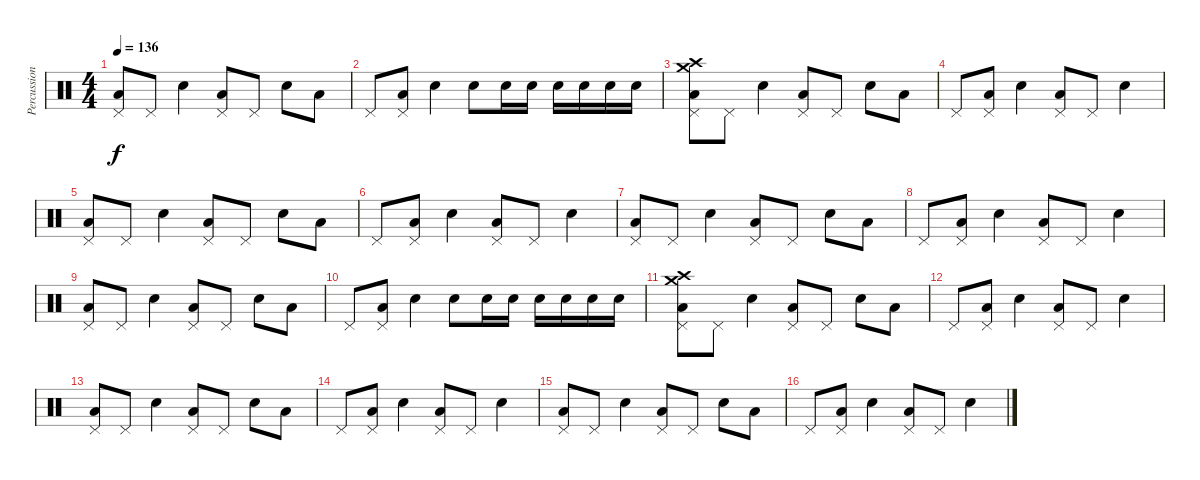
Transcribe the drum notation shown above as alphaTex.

\track ("Percussions" "Percussion") {instrument percussion}
\staff {score}
\articulation defaults
\ts (4 4)
\tempo 136
\clef neutral
\ks c
("Low Floor Tom (hit)" "Pedal Hi-Hat (hit)").8{dy f} "Pedal Hi-Hat (hit)".8 "Snare (hit) 2".4 ("Low Floor Tom (hit)" "Pedal Hi-Hat (hit)").8 "Pedal Hi-Hat (hit)".8 "Snare (hit) 2".8 "Low Floor Tom (hit)".8 |
"Pedal Hi-Hat (hit)".8 ("Low Floor Tom (hit)" "Pedal Hi-Hat (hit)").8 "Snare (hit) 2".4 "Snare (hit) 2".8 "Snare (hit) 2".16 "Snare (hit) 2".16 "Snare (hit) 2".16 "Snare (hit) 2".16 "Snare (hit) 2".16 "Snare (hit) 2".16 |
("Low Floor Tom (hit)" "Pedal Hi-Hat (hit)" "Crash high (hit)" "Crash medium (hit)").8 "Pedal Hi-Hat (hit)".8 "Snare (hit) 2".4 ("Low Floor Tom (hit)" "Pedal Hi-Hat (hit)").8 "Pedal Hi-Hat (hit)".8 "Snare (hit) 2".8 "Low Floor Tom (hit)".8 |
"Pedal Hi-Hat (hit)".8 ("Low Floor Tom (hit)" "Pedal Hi-Hat (hit)").8 "Snare (hit) 2".4 ("Low Floor Tom (hit)" "Pedal Hi-Hat (hit)").8 "Pedal Hi-Hat (hit)".8 "Snare (hit) 2".4 |
("Low Floor Tom (hit)" "Pedal Hi-Hat (hit)").8 "Pedal Hi-Hat (hit)".8 "Snare (hit) 2".4 ("Low Floor Tom (hit)" "Pedal Hi-Hat (hit)").8 "Pedal Hi-Hat (hit)".8 "Snare (hit) 2".8 "Low Floor Tom (hit)".8 |
"Pedal Hi-Hat (hit)".8 ("Low Floor Tom (hit)" "Pedal Hi-Hat (hit)").8 "Snare (hit) 2".4 ("Low Floor Tom (hit)" "Pedal Hi-Hat (hit)").8 "Pedal Hi-Hat (hit)".8 "Snare (hit) 2".4 |
("Low Floor Tom (hit)" "Pedal Hi-Hat (hit)").8 "Pedal Hi-Hat (hit)".8 "Snare (hit) 2".4 ("Low Floor Tom (hit)" "Pedal Hi-Hat (hit)").8 "Pedal Hi-Hat (hit)".8 "Snare (hit) 2".8 "Low Floor Tom (hit)".8 |
"Pedal Hi-Hat (hit)".8 ("Low Floor Tom (hit)" "Pedal Hi-Hat (hit)").8 "Snare (hit) 2".4 ("Low Floor Tom (hit)" "Pedal Hi-Hat (hit)").8 "Pedal Hi-Hat (hit)".8 "Snare (hit) 2".4 |
("Low Floor Tom (hit)" "Pedal Hi-Hat (hit)").8 "Pedal Hi-Hat (hit)".8 "Snare (hit) 2".4 ("Low Floor Tom (hit)" "Pedal Hi-Hat (hit)").8 "Pedal Hi-Hat (hit)".8 "Snare (hit) 2".8 "Low Floor Tom (hit)".8 |
"Pedal Hi-Hat (hit)".8 ("Low Floor Tom (hit)" "Pedal Hi-Hat (hit)").8 "Snare (hit) 2".4 "Snare (hit) 2".8 "Snare (hit) 2".16 "Snare (hit) 2".16 "Snare (hit) 2".16 "Snare (hit) 2".16 "Snare (hit) 2".16 "Snare (hit) 2".16 |
("Low Floor Tom (hit)" "Pedal Hi-Hat (hit)" "Crash medium (hit)" "Crash high (hit)").8 "Pedal Hi-Hat (hit)".8 "Snare (hit) 2".4 ("Low Floor Tom (hit)" "Pedal Hi-Hat (hit)").8 "Pedal Hi-Hat (hit)".8 "Snare (hit) 2".8 "Low Floor Tom (hit)".8 |
"Pedal Hi-Hat (hit)".8 ("Low Floor Tom (hit)" "Pedal Hi-Hat (hit)").8 "Snare (hit) 2".4 ("Low Floor Tom (hit)" "Pedal Hi-Hat (hit)").8 "Pedal Hi-Hat (hit)".8 "Snare (hit) 2".4 |
("Low Floor Tom (hit)" "Pedal Hi-Hat (hit)").8 "Pedal Hi-Hat (hit)".8 "Snare (hit) 2".4 ("Low Floor Tom (hit)" "Pedal Hi-Hat (hit)").8 "Pedal Hi-Hat (hit)".8 "Snare (hit) 2".8 "Low Floor Tom (hit)".8 |
"Pedal Hi-Hat (hit)".8 ("Low Floor Tom (hit)" "Pedal Hi-Hat (hit)").8 "Snare (hit) 2".4 ("Low Floor Tom (hit)" "Pedal Hi-Hat (hit)").8 "Pedal Hi-Hat (hit)".8 "Snare (hit) 2".4 |
("Low Floor Tom (hit)" "Pedal Hi-Hat (hit)").8 "Pedal Hi-Hat (hit)".8 "Snare (hit) 2".4 ("Low Floor Tom (hit)" "Pedal Hi-Hat (hit)").8 "Pedal Hi-Hat (hit)".8 "Snare (hit) 2".8 "Low Floor Tom (hit)".8 |
"Pedal Hi-Hat (hit)".8 ("Low Floor Tom (hit)" "Pedal Hi-Hat (hit)").8 "Snare (hit) 2".4 ("Low Floor Tom (hit)" "Pedal Hi-Hat (hit)").8 "Pedal Hi-Hat (hit)".8 "Snare (hit) 2".4
